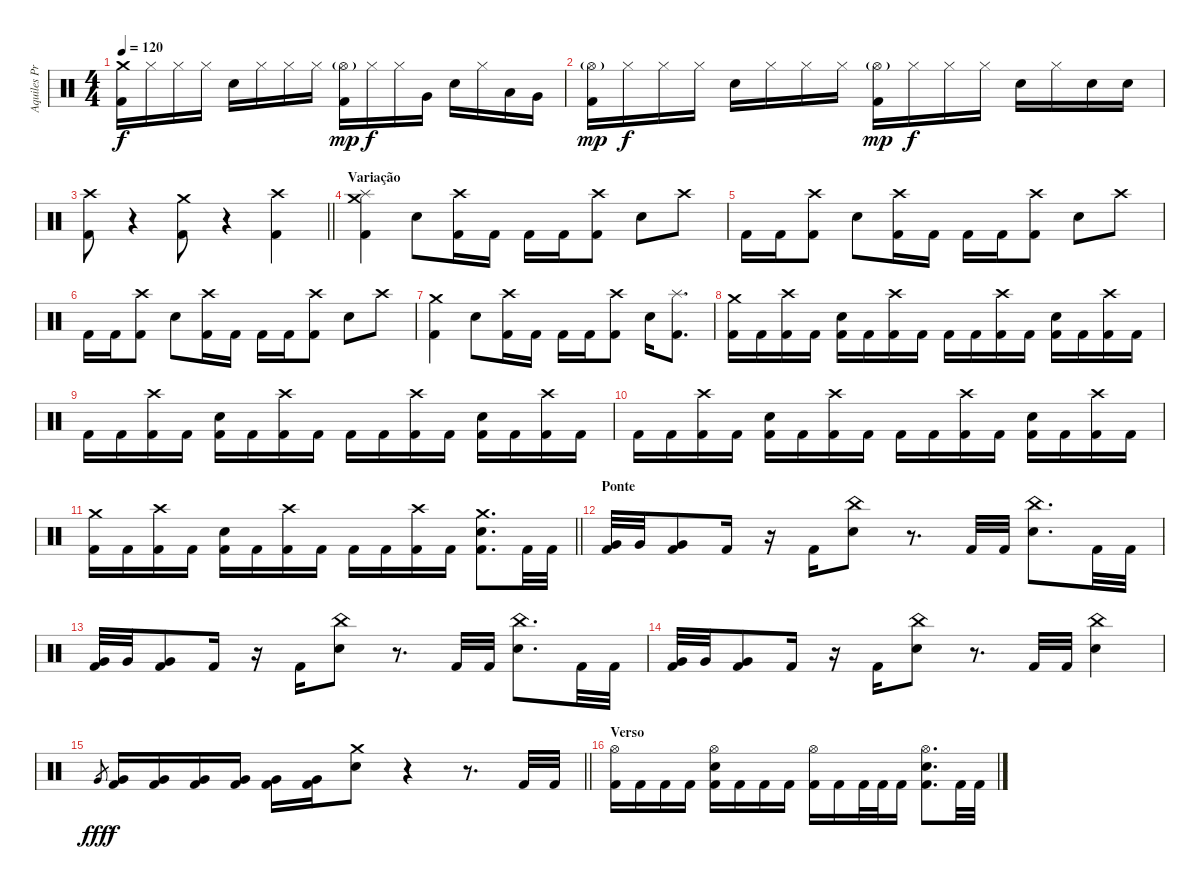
\track ("Aquiles Priester" "Aquiles Pr") {instrument percussion}
\staff {score}
\articulation defaults
\ts (4 4)
\tempo 120
\clef neutral
\ks c
("Crash medium (hit)" "Kick (hit) 2").16{dy f} "Hi-Hat (closed)".16 "Hi-Hat (closed)".16 "Hi-Hat (closed)".16 "Electric Snare (hit)".16 "Hi-Hat (closed)".16 "Hi-Hat (closed)".16 "Hi-Hat (closed)".16 ("Hi-Hat (open)"{g} "Kick (hit) 2").16{dy mp} "Hi-Hat (closed)".16{dy f} "Hi-Hat (closed)".16 "Very Low Tom (hit)".16 "Electric Snare (hit)".16 "Hi-Hat (closed)".16 "Low Tom (hit)".16 "Very Low Tom (hit)".16 |
("Hi-Hat (open)"{g} "Kick (hit) 2").16{dy mp} "Hi-Hat (closed)".16{dy f} "Hi-Hat (closed)".16 "Hi-Hat (closed)".16 "Electric Snare (hit)".16 "Hi-Hat (closed)".16 "Hi-Hat (closed)".16 "Hi-Hat (closed)".16 ("Hi-Hat (open)"{g} "Kick (hit) 2").16{dy mp} "Hi-Hat (closed)".16{dy f} "Hi-Hat (closed)".16 "Hi-Hat (closed)".16 "Electric Snare (hit)".16 "Hi-Hat (closed)".16 "Electric Snare (hit)".16 "Electric Snare (hit)".16 |
\barLineRight lightlight
("Crash high (hit)" "Kick (hit) 2").8 r.4{volume 0} ("Crash medium (hit)" "Kick (hit) 2").8{volume 13} r.4{volume 0} ("Crash high (hit)" "Kick (hit) 2").4{volume 13} |
\section ("" "Variação")
("Crash medium (hit)" "Splash (hit)" "Kick (hit) 2").4 "Electric Snare (hit)".8 ("Crash high (hit)" "Kick (hit) 2").16 "Kick (hit) 2".16 "Kick (hit) 2".16 "Kick (hit) 2".16 ("Crash high (hit)" "Kick (hit) 2").8 "Electric Snare (hit)".8 "Crash high (hit)".8 |
"Kick (hit) 2".16 "Kick (hit) 2".16 ("Crash high (hit)" "Kick (hit) 2").8 "Electric Snare (hit)".8 ("Crash high (hit)" "Kick (hit) 2").16 "Kick (hit) 2".16 "Kick (hit) 2".16 "Kick (hit) 2".16 ("Crash high (hit)" "Kick (hit) 2").8 "Electric Snare (hit)".8 "Crash high (hit)".8 |
"Kick (hit) 2".16 "Kick (hit) 2".16 ("Crash high (hit)" "Kick (hit) 2").8 "Electric Snare (hit)".8 ("Crash high (hit)" "Kick (hit) 2").16 "Kick (hit) 2".16 "Kick (hit) 2".16 "Kick (hit) 2".16 ("Crash high (hit)" "Kick (hit) 2").8 "Electric Snare (hit)".8 "Crash high (hit)".8 |
("Crash medium (hit)" "Kick (hit) 2").4 "Electric Snare (hit)".8 ("Crash high (hit)" "Kick (hit) 2").16 "Kick (hit) 2".16 "Kick (hit) 2".16 "Kick (hit) 2".16 ("Crash high (hit)" "Kick (hit) 2").8 "Electric Snare (hit)".16 ("Splash (hit)" "Kick (hit) 2").8{d} |
("Crash medium (hit)" "Kick (hit) 2").16 "Kick (hit) 2".16 ("Crash high (hit)" "Kick (hit) 2").16 "Kick (hit) 2".16 ("Electric Snare (hit)" "Kick (hit) 2").16 "Kick (hit) 2".16 ("Crash high (hit)" "Kick (hit) 2").16 "Kick (hit) 2".16 "Kick (hit) 2".16 "Kick (hit) 2".16 ("Crash high (hit)" "Kick (hit) 2").16 "Kick (hit) 2".16 ("Electric Snare (hit)" "Kick (hit) 2").16 "Kick (hit) 2".16 ("Crash high (hit)" "Kick (hit) 2").16 "Kick (hit) 2".16 |
"Kick (hit) 2".16 "Kick (hit) 2".16 ("Crash high (hit)" "Kick (hit) 2").16 "Kick (hit) 2".16 ("Electric Snare (hit)" "Kick (hit) 2").16 "Kick (hit) 2".16 ("Crash high (hit)" "Kick (hit) 2").16 "Kick (hit) 2".16 "Kick (hit) 2".16 "Kick (hit) 2".16 ("Crash high (hit)" "Kick (hit) 2").16 "Kick (hit) 2".16 ("Electric Snare (hit)" "Kick (hit) 2").16 "Kick (hit) 2".16 ("Crash high (hit)" "Kick (hit) 2").16 "Kick (hit) 2".16 |
"Kick (hit) 2".16 "Kick (hit) 2".16 ("Crash high (hit)" "Kick (hit) 2").16 "Kick (hit) 2".16 ("Electric Snare (hit)" "Kick (hit) 2").16 "Kick (hit) 2".16 ("Crash high (hit)" "Kick (hit) 2").16 "Kick (hit) 2".16 "Kick (hit) 2".16 "Kick (hit) 2".16 ("Crash high (hit)" "Kick (hit) 2").16 "Kick (hit) 2".16 ("Electric Snare (hit)" "Kick (hit) 2").16 "Kick (hit) 2".16 ("Crash high (hit)" "Kick (hit) 2").16 "Kick (hit) 2".16 |
\barLineRight lightlight
("Crash medium (hit)" "Kick (hit) 2").16 "Kick (hit) 2".16 ("Crash high (hit)" "Kick (hit) 2").16 "Kick (hit) 2".16 ("Electric Snare (hit)" "Kick (hit) 2").16 "Kick (hit) 2".16 ("Crash high (hit)" "Kick (hit) 2").16 "Kick (hit) 2".16 "Kick (hit) 2".16 "Kick (hit) 2".16 ("Crash high (hit)" "Kick (hit) 2").16 "Kick (hit) 2".16 ("Crash medium (hit)" "Electric Snare (hit)" "Kick (hit) 2").8{d} "Kick (hit) 2".32 "Kick (hit) 2".32 |
\section ("" "Ponte")
("Very Low Tom (hit)" "Kick (hit) 2").32 "Very Low Tom (hit)".32 ("Very Low Tom (hit)" "Kick (hit) 2").8 "Kick (hit) 2".16 r.16 "Kick (hit) 2".16 ("China (hit)" "Electric Snare (hit)").8 r.8{d} "Kick (hit) 2".32 "Kick (hit) 2".32 ("China (hit)" "Electric Snare (hit)").8{d} "Kick (hit) 2".32 "Kick (hit) 2".32 |
("Very Low Tom (hit)" "Kick (hit) 2").32 "Very Low Tom (hit)".32 ("Very Low Tom (hit)" "Kick (hit) 2").8 "Kick (hit) 2".16 r.16 "Kick (hit) 2".16 ("China (hit)" "Electric Snare (hit)").8 r.8{d} "Kick (hit) 2".32 "Kick (hit) 2".32 ("China (hit)" "Electric Snare (hit)").8{d} "Kick (hit) 2".32 "Kick (hit) 2".32 |
("Very Low Tom (hit)" "Kick (hit) 2").32 "Very Low Tom (hit)".32 ("Very Low Tom (hit)" "Kick (hit) 2").8 "Kick (hit) 2".16 r.16 "Kick (hit) 2".16 ("China (hit)" "Electric Snare (hit)").8 r.8{d} "Kick (hit) 2".32 "Kick (hit) 2".32 ("China (hit)" "Electric Snare (hit)").4 |
\barLineRight lightlight "Very Low Tom (hit)".8{gr dy fff}
("Very Low Tom (hit)" "Kick (hit) 2").16{dy f} ("Very Low Tom (hit)" "Kick (hit) 2").16 ("Very Low Tom (hit)" "Kick (hit) 2").16 ("Very Low Tom (hit)" "Kick (hit) 2").16 ("Very Low Tom (hit)" "Kick (hit) 2").16 ("Very Low Tom (hit)" "Kick (hit) 2").16 ("Crash medium (hit)" "Electric Snare (hit)").8 r.4 r.8{d} "Kick (hit) 2".32 "Kick (hit) 2".32 |
\section ("" "Verso")
("Hi-Hat (open)" "Kick (hit) 2").16 "Kick (hit) 2".16 "Kick (hit) 2".16 "Kick (hit) 2".16 ("Hi-Hat (open)" "Electric Snare (hit)" "Kick (hit) 2").16 "Kick (hit) 2".16 "Kick (hit) 2".16 "Kick (hit) 2".16 ("Hi-Hat (open)" "Kick (hit) 2").16 "Kick (hit) 2".16 "Kick (hit) 2".32 "Kick (hit) 2".32 "Kick (hit) 2".16 ("Hi-Hat (open)" "Electric Snare (hit)" "Kick (hit) 2").8{d} "Kick (hit) 2".32 "Kick (hit) 2".32
